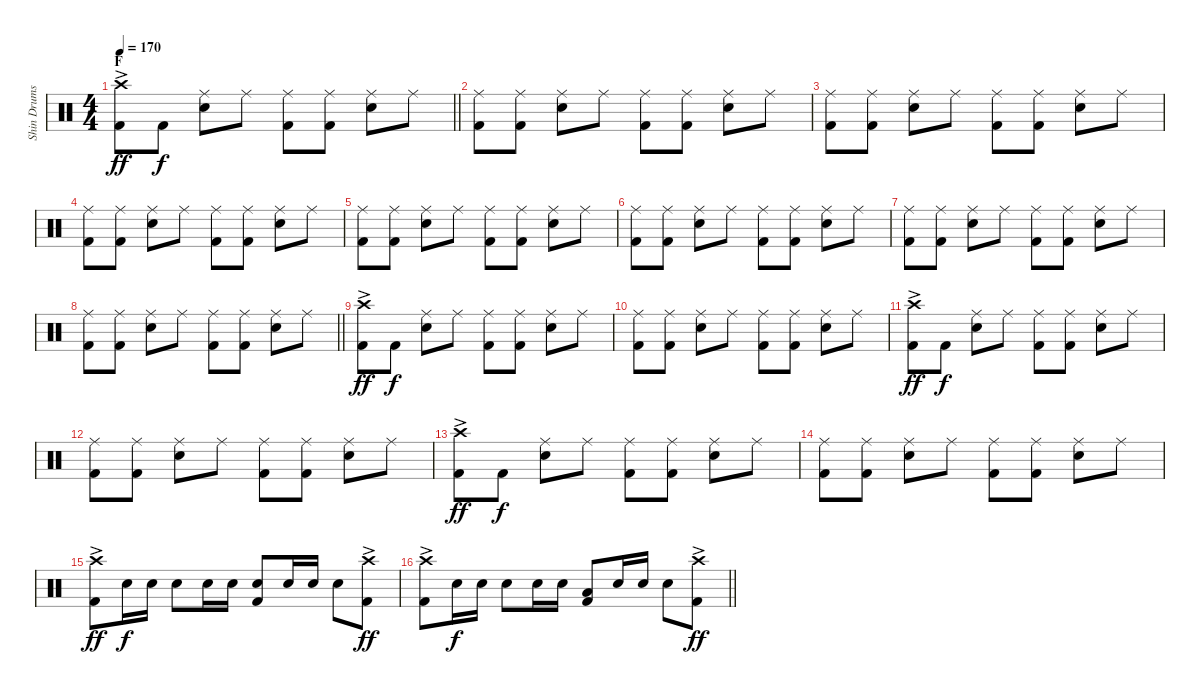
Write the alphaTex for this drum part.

\track ("Shin Drums" "Shin Drums") {instrument percussion}
\staff {score}
\articulation defaults
\ts (4 4)
\section ("" "F")
\tempo 170
\clef neutral
\barLineRight lightlight
\ks c
("Crash high (hit)"{ac} "Kick (hit) 2").8{dy ff} "Kick (hit) 2".8{dy f} ("Ride (middle)" "Snare (hit) 2").8 "Ride (middle)".8 ("Ride (middle)" "Kick (hit) 2").8 ("Ride (middle)" "Kick (hit) 2").8 ("Ride (middle)" "Snare (hit) 2").8 "Ride (middle)".8 |
\section ("" "")
("Ride (middle)" "Kick (hit) 2").8 ("Ride (middle)" "Kick (hit) 2").8 ("Ride (middle)" "Snare (hit) 2").8 "Ride (middle)".8 ("Ride (middle)" "Kick (hit) 2").8 ("Ride (middle)" "Kick (hit) 2").8 ("Ride (middle)" "Snare (hit) 2").8 "Ride (middle)".8 |
("Ride (middle)" "Kick (hit) 2").8 ("Ride (middle)" "Kick (hit) 2").8 ("Ride (middle)" "Snare (hit) 2").8 "Ride (middle)".8 ("Ride (middle)" "Kick (hit) 2").8 ("Ride (middle)" "Kick (hit) 2").8 ("Ride (middle)" "Snare (hit) 2").8 "Ride (middle)".8 |
("Ride (middle)" "Kick (hit) 2").8 ("Ride (middle)" "Kick (hit) 2").8 ("Ride (middle)" "Snare (hit) 2").8 "Ride (middle)".8 ("Ride (middle)" "Kick (hit) 2").8 ("Ride (middle)" "Kick (hit) 2").8 ("Ride (middle)" "Snare (hit) 2").8 "Ride (middle)".8 |
("Ride (middle)" "Kick (hit) 2").8 ("Ride (middle)" "Kick (hit) 2").8 ("Ride (middle)" "Snare (hit) 2").8 "Ride (middle)".8 ("Ride (middle)" "Kick (hit) 2").8 ("Ride (middle)" "Kick (hit) 2").8 ("Ride (middle)" "Snare (hit) 2").8 "Ride (middle)".8 |
("Ride (middle)" "Kick (hit) 2").8 ("Ride (middle)" "Kick (hit) 2").8 ("Ride (middle)" "Snare (hit) 2").8 "Ride (middle)".8 ("Ride (middle)" "Kick (hit) 2").8 ("Ride (middle)" "Kick (hit) 2").8 ("Ride (middle)" "Snare (hit) 2").8 "Ride (middle)".8 |
("Ride (middle)" "Kick (hit) 2").8 ("Ride (middle)" "Kick (hit) 2").8 ("Ride (middle)" "Snare (hit) 2").8 "Ride (middle)".8 ("Ride (middle)" "Kick (hit) 2").8 ("Ride (middle)" "Kick (hit) 2").8 ("Ride (middle)" "Snare (hit) 2").8 "Ride (middle)".8 |
\barLineRight lightlight
("Ride (middle)" "Kick (hit) 2").8 ("Ride (middle)" "Kick (hit) 2").8 ("Ride (middle)" "Snare (hit) 2").8 "Ride (middle)".8 ("Ride (middle)" "Kick (hit) 2").8 ("Ride (middle)" "Kick (hit) 2").8 ("Ride (middle)" "Snare (hit) 2").8 "Ride (middle)".8 |
("Crash high (hit)"{ac} "Kick (hit) 2").8{dy ff} "Kick (hit) 2".8{dy f} ("Ride (middle)" "Snare (hit) 2").8 "Ride (middle)".8 ("Ride (middle)" "Kick (hit) 2").8 ("Ride (middle)" "Kick (hit) 2").8 ("Ride (middle)" "Snare (hit) 2").8 "Ride (middle)".8 |
("Ride (middle)" "Kick (hit) 2").8 ("Ride (middle)" "Kick (hit) 2").8 ("Ride (middle)" "Snare (hit) 2").8 "Ride (middle)".8 ("Ride (middle)" "Kick (hit) 2").8 ("Ride (middle)" "Kick (hit) 2").8 ("Ride (middle)" "Snare (hit) 2").8 "Ride (middle)".8 |
("Crash high (hit)"{ac} "Kick (hit) 2").8{dy ff} "Kick (hit) 2".8{dy f} ("Ride (middle)" "Snare (hit) 2").8 "Ride (middle)".8 ("Ride (middle)" "Kick (hit) 2").8 ("Ride (middle)" "Kick (hit) 2").8 ("Ride (middle)" "Snare (hit) 2").8 "Ride (middle)".8 |
("Ride (middle)" "Kick (hit) 2").8 ("Ride (middle)" "Kick (hit) 2").8 ("Ride (middle)" "Snare (hit) 2").8 "Ride (middle)".8 ("Ride (middle)" "Kick (hit) 2").8 ("Ride (middle)" "Kick (hit) 2").8 ("Ride (middle)" "Snare (hit) 2").8 "Ride (middle)".8 |
("Crash high (hit)"{ac} "Kick (hit) 2").8{dy ff} "Kick (hit) 2".8{dy f} ("Ride (middle)" "Snare (hit) 2").8 "Ride (middle)".8 ("Ride (middle)" "Kick (hit) 2").8 ("Ride (middle)" "Kick (hit) 2").8 ("Ride (middle)" "Snare (hit) 2").8 "Ride (middle)".8 |
("Ride (middle)" "Kick (hit) 2").8 ("Ride (middle)" "Kick (hit) 2").8 ("Ride (middle)" "Snare (hit) 2").8 "Ride (middle)".8 ("Ride (middle)" "Kick (hit) 2").8 ("Ride (middle)" "Kick (hit) 2").8 ("Ride (middle)" "Snare (hit) 2").8 "Ride (middle)".8 |
("Crash high (hit)"{ac} "Kick (hit) 2").8{dy ff} "Snare (hit) 2".16{dy f} "Snare (hit) 2".16 "Snare (hit) 2".8 "Snare (hit) 2".16 "Snare (hit) 2".16 ("Snare (hit) 2" "Kick (hit) 2").8 "Snare (hit) 2".16 "Snare (hit) 2".16 "Snare (hit) 2".8 ("Crash high (hit)"{ac} "Kick (hit) 2").8{dy ff} |
\barLineRight lightlight
("Crash high (hit)"{ac} "Kick (hit) 2").8 "Snare (hit) 2".16{dy f} "Snare (hit) 2".16 "Snare (hit) 2".8 "Snare (hit) 2".16 "Snare (hit) 2".16 ("Low Tom (hit)" "Kick (hit) 2").8 "Snare (hit) 2".16 "Snare (hit) 2".16 "Snare (hit) 2".8 ("Crash high (hit)"{ac} "Kick (hit) 2").8{dy ff}
